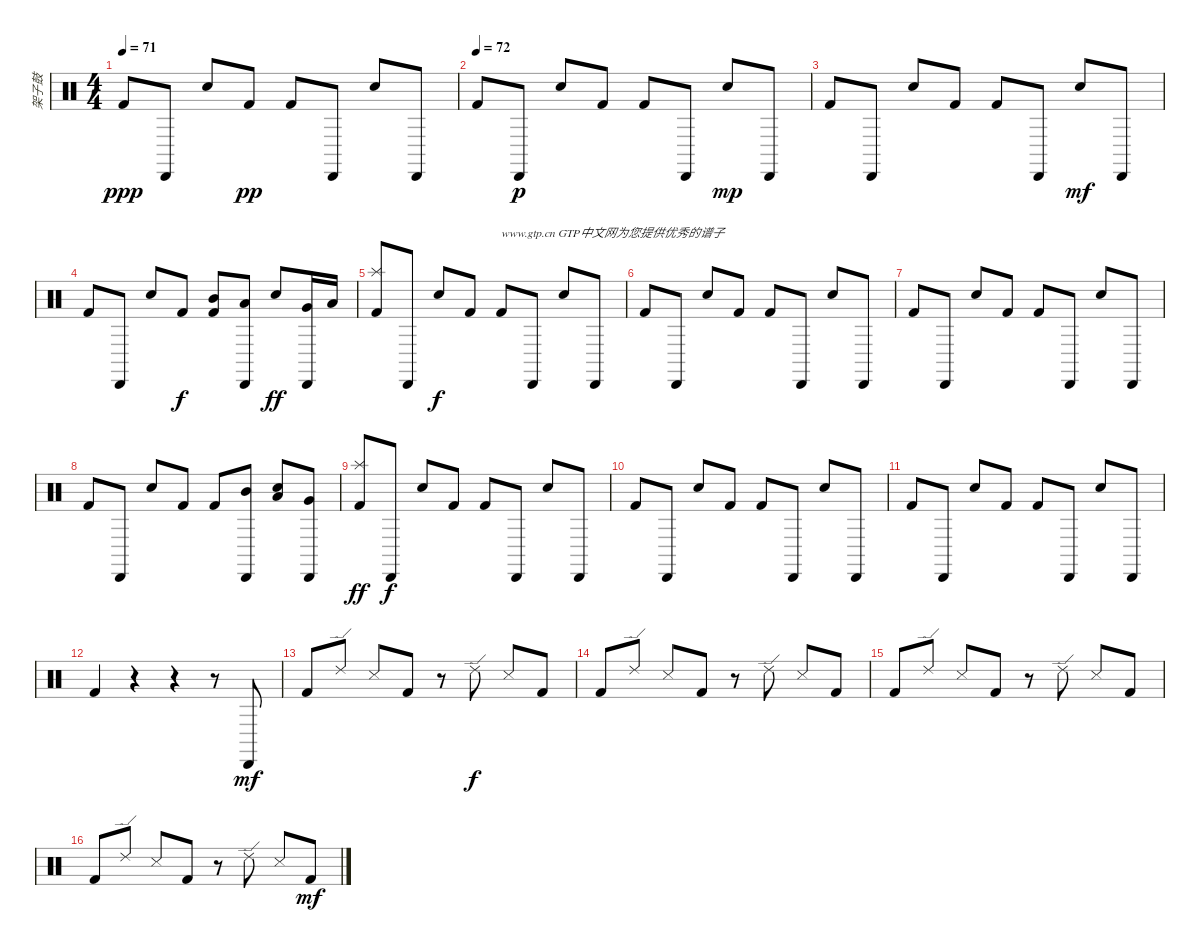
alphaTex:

\track ("架子鼓" "架子鼓") {instrument percussion}
\staff {score}
\articulation defaults
\ts (4 4)
\tempo 71
\clef neutral
\ks c "Kick (hit) 2".8{dy ppp} "Cabasa (hit)".8 "Snare (hit) 2".8 "Kick (hit) 2".8{dy pp} "Kick (hit) 2".8 "Cabasa (hit)".8 "Snare (hit) 2".8 "Cabasa (hit)".8
|
\tempo (72)
"Kick (hit) 2".8 "Cabasa (hit)".8{dy p} "Snare (hit) 2".8 "Kick (hit) 2".8 "Kick (hit) 2".8 "Cabasa (hit)".8 "Snare (hit) 2".8{dy mp} "Cabasa (hit)".8 |
"Kick (hit) 2".8 "Cabasa (hit)".8 "Snare (hit) 2".8 "Kick (hit) 2".8 "Kick (hit) 2".8 "Cabasa (hit)".8 "Snare (hit) 2".8{dy mf} "Cabasa (hit)".8 |
"Kick (hit) 2".8 "Cabasa (hit)".8 "Snare (hit) 2".8 "Kick (hit) 2".8{dy f} ("Mid Tom (hit)" "Kick (hit) 2").8 ("Cabasa (hit)" "Low Tom (hit)").8 "Snare (hit) 2".8{dy ff} ("Cabasa (hit)" "Very Low Tom (hit)").16 "Low Floor Tom (hit)".16 |
("Splash (hit)" "Kick (hit) 2").8 "Cabasa (hit)".8 "Snare (hit) 2".8{dy f} "Kick (hit) 2".8 "Kick (hit) 2".8{txt "www.gtp.cn GTP中文网为您提供优秀的谱子"} "Cabasa (hit)".8 "Snare (hit) 2".8 "Cabasa (hit)".8 |
"Kick (hit) 2".8 "Cabasa (hit)".8 "Snare (hit) 2".8 "Kick (hit) 2".8 "Kick (hit) 2".8 "Cabasa (hit)".8 "Snare (hit) 2".8 "Cabasa (hit)".8 |
"Kick (hit) 2".8 "Cabasa (hit)".8 "Snare (hit) 2".8 "Kick (hit) 2".8 "Kick (hit) 2".8 "Cabasa (hit)".8 "Snare (hit) 2".8 "Cabasa (hit)".8 |
"Kick (hit) 2".8 "Cabasa (hit)".8 "Snare (hit) 2".8 "Kick (hit) 2".8 "Kick (hit) 2".8 ("Cabasa (hit)" "Mid Tom (hit)").8 ("Low Tom (hit)" "Snare (hit) 2").8 ("Cabasa (hit)" "Very Low Tom (hit)").8 |
("Splash (hit)" "Kick (hit) 2").8{dy ff} "Cabasa (hit)".8{dy f} "Snare (hit) 2".8 "Kick (hit) 2".8 "Kick (hit) 2".8 "Cabasa (hit)".8 "Snare (hit) 2".8 "Cabasa (hit)".8 |
"Kick (hit) 2".8 "Cabasa (hit)".8 "Snare (hit) 2".8 "Kick (hit) 2".8 "Kick (hit) 2".8 "Cabasa (hit)".8 "Snare (hit) 2".8 "Cabasa (hit)".8 |
"Kick (hit) 2".8 "Cabasa (hit)".8 "Snare (hit) 2".8 "Kick (hit) 2".8 "Kick (hit) 2".8 "Cabasa (hit)".8 "Snare (hit) 2".8 "Cabasa (hit)".8 |
"Kick (hit) 2".4 r.4 r.4 r.8 "Cabasa (hit)".8{dy mf} |
"Kick (hit) 2".8 "Ride (edge) 2".8 "Metronome (hit)".8 "Kick (hit) 2".8 r.8 "Ride (edge) 2".8{dy f} "Metronome (hit)".8 "Kick (hit) 2".8 |
"Kick (hit) 2".8 "Ride (edge) 2".8 "Metronome (hit)".8 "Kick (hit) 2".8 r.8 "Ride (edge) 2".8 "Metronome (hit)".8 "Kick (hit) 2".8 |
"Kick (hit) 2".8 "Ride (edge) 2".8 "Metronome (hit)".8 "Kick (hit) 2".8 r.8 "Ride (edge) 2".8 "Metronome (hit)".8 "Kick (hit) 2".8 |
"Kick (hit) 2".8 "Ride (edge) 2".8 "Metronome (hit)".8 "Kick (hit) 2".8 r.8 "Ride (edge) 2".8 "Metronome (hit)".8 "Kick (hit) 2".8{dy mf}
